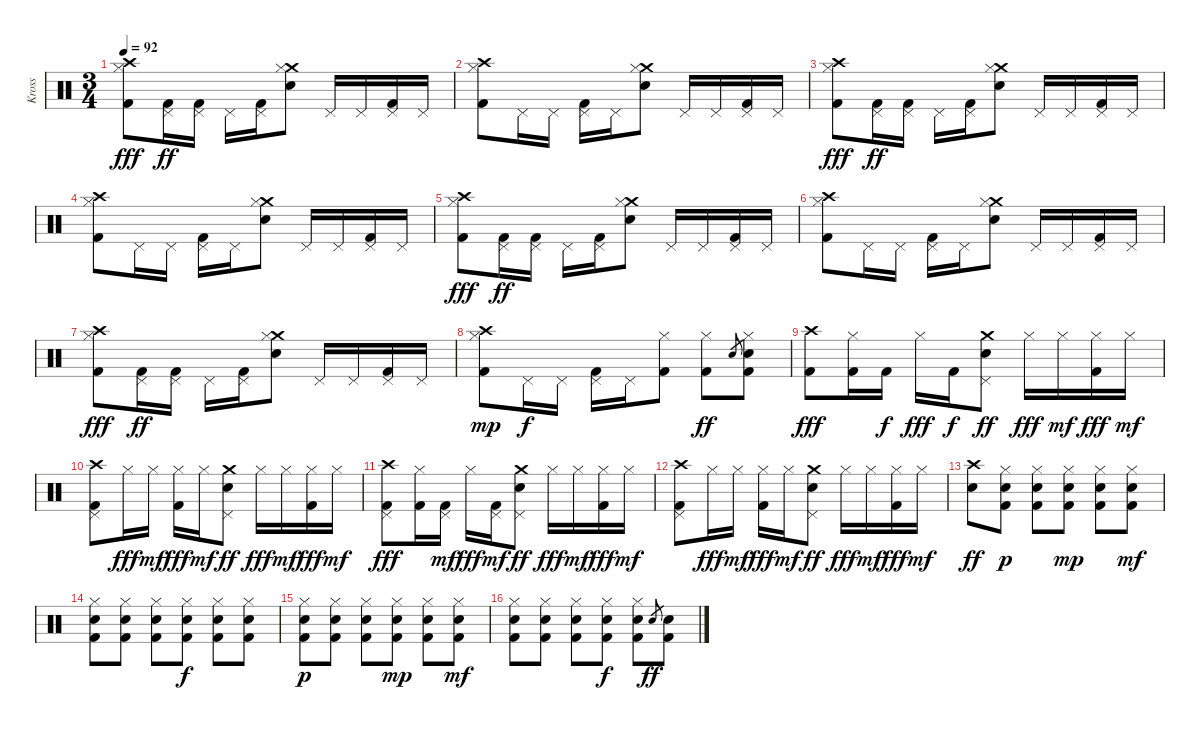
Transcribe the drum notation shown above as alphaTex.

\track ("Kross" "Kross") {instrument percussion}
\staff {score}
\articulation defaults
\ts (3 4)
\tempo 92
\clef neutral
\ks c
("Crash high (hit)" "Hi-Hat (closed)" "Kick (hit) 2").8{dy fff} ("Pedal Hi-Hat (hit)" "Kick (hit) 2").16{dy ff} ("Pedal Hi-Hat (hit)" "Kick (hit) 2").16 "Pedal Hi-Hat (hit)".16 ("Pedal Hi-Hat (hit)" "Kick (hit) 2").16 ("Crash medium (hit)" "Hi-Hat (closed)" "Snare (hit) 2").8 "Pedal Hi-Hat (hit)".16 "Pedal Hi-Hat (hit)".16 ("Pedal Hi-Hat (hit)" "Kick (hit) 2").16 "Pedal Hi-Hat (hit)".16 |
("Crash high (hit)" "Hi-Hat (closed)" "Kick (hit) 2").8 "Pedal Hi-Hat (hit)".16 "Pedal Hi-Hat (hit)".16 ("Pedal Hi-Hat (hit)" "Kick (hit) 2").16 "Pedal Hi-Hat (hit)".16 ("Crash medium (hit)" "Hi-Hat (closed)" "Snare (hit) 2").8 "Pedal Hi-Hat (hit)".16 "Pedal Hi-Hat (hit)".16 ("Pedal Hi-Hat (hit)" "Kick (hit) 2").16 "Pedal Hi-Hat (hit)".16 |
("Crash high (hit)" "Hi-Hat (closed)" "Kick (hit) 2").8{dy fff} ("Pedal Hi-Hat (hit)" "Kick (hit) 2").16{dy ff} ("Pedal Hi-Hat (hit)" "Kick (hit) 2").16 "Pedal Hi-Hat (hit)".16 ("Pedal Hi-Hat (hit)" "Kick (hit) 2").16 ("Crash medium (hit)" "Hi-Hat (closed)" "Snare (hit) 2").8 "Pedal Hi-Hat (hit)".16 "Pedal Hi-Hat (hit)".16 ("Pedal Hi-Hat (hit)" "Kick (hit) 2").16 "Pedal Hi-Hat (hit)".16 |
("Crash high (hit)" "Hi-Hat (closed)" "Kick (hit) 2").8 "Pedal Hi-Hat (hit)".16 "Pedal Hi-Hat (hit)".16 ("Pedal Hi-Hat (hit)" "Kick (hit) 2").16 "Pedal Hi-Hat (hit)".16 ("Crash medium (hit)" "Hi-Hat (closed)" "Snare (hit) 2").8 "Pedal Hi-Hat (hit)".16 "Pedal Hi-Hat (hit)".16 ("Pedal Hi-Hat (hit)" "Kick (hit) 2").16 "Pedal Hi-Hat (hit)".16 |
("Crash high (hit)" "Hi-Hat (closed)" "Kick (hit) 2").8{dy fff} ("Pedal Hi-Hat (hit)" "Kick (hit) 2").16{dy ff} ("Pedal Hi-Hat (hit)" "Kick (hit) 2").16 "Pedal Hi-Hat (hit)".16 ("Pedal Hi-Hat (hit)" "Kick (hit) 2").16 ("Crash medium (hit)" "Hi-Hat (closed)" "Snare (hit) 2").8 "Pedal Hi-Hat (hit)".16 "Pedal Hi-Hat (hit)".16 ("Pedal Hi-Hat (hit)" "Kick (hit) 2").16 "Pedal Hi-Hat (hit)".16 |
("Crash high (hit)" "Hi-Hat (closed)" "Kick (hit) 2").8 "Pedal Hi-Hat (hit)".16 "Pedal Hi-Hat (hit)".16 ("Pedal Hi-Hat (hit)" "Kick (hit) 2").16 "Pedal Hi-Hat (hit)".16 ("Crash medium (hit)" "Hi-Hat (closed)" "Snare (hit) 2").8 "Pedal Hi-Hat (hit)".16 "Pedal Hi-Hat (hit)".16 ("Pedal Hi-Hat (hit)" "Kick (hit) 2").16 "Pedal Hi-Hat (hit)".16 |
("Crash high (hit)" "Hi-Hat (closed)" "Kick (hit) 2").8{dy fff} ("Pedal Hi-Hat (hit)" "Kick (hit) 2").16{dy ff} ("Pedal Hi-Hat (hit)" "Kick (hit) 2").16 "Pedal Hi-Hat (hit)".16 ("Pedal Hi-Hat (hit)" "Kick (hit) 2").16 ("Crash medium (hit)" "Hi-Hat (closed)" "Snare (hit) 2").8 "Pedal Hi-Hat (hit)".16 "Pedal Hi-Hat (hit)".16 ("Pedal Hi-Hat (hit)" "Kick (hit) 2").16 "Pedal Hi-Hat (hit)".16 |
("Crash high (hit)" "Hi-Hat (closed)" "Kick (hit) 2").8{dy mp} "Pedal Hi-Hat (hit)".16{dy f} "Pedal Hi-Hat (hit)".16 ("Pedal Hi-Hat (hit)" "Kick (hit) 2").16 "Pedal Hi-Hat (hit)".16 ("Hi-Hat (closed)" "Kick (hit) 2").8 ("Hi-Hat (closed)" "Kick (hit) 2").8{dy ff} "Electric Snare (hit)".8{gr} ("Hi-Hat (closed)" "Electric Snare (hit)" "Kick (hit) 2").8 |
("Crash high (hit)" "Kick (hit) 2").8{dy fff} ("Hi-Hat (closed)" "Kick (hit) 2").16 "Kick (hit) 2".16{dy f} "Hi-Hat (closed)".16{dy fff} "Kick (hit) 2".16{dy f} ("Crash medium (hit)" "Pedal Hi-Hat (hit)" "Snare (hit) 2").8{dy ff} "Hi-Hat (closed)".16{dy fff} "Hi-Hat (closed)".16{dy mf} ("Hi-Hat (closed)" "Kick (hit) 2").16{dy fff} "Hi-Hat (closed)".16{dy mf} |
("Crash high (hit)" "Pedal Hi-Hat (hit)" "Kick (hit) 2").8 "Hi-Hat (closed)".16{dy fff} "Hi-Hat (closed)".16{dy mf} ("Hi-Hat (closed)" "Kick (hit) 2").16{dy fff} "Hi-Hat (closed)".16{dy mf} ("Crash medium (hit)" "Pedal Hi-Hat (hit)" "Snare (hit) 2").8{dy ff} "Hi-Hat (closed)".16{dy fff} "Hi-Hat (closed)".16{dy mf} ("Hi-Hat (closed)" "Kick (hit) 2").16{dy fff} "Hi-Hat (closed)".16{dy mf} |
("Crash high (hit)" "Pedal Hi-Hat (hit)" "Kick (hit) 2").8{dy fff} ("Hi-Hat (closed)" "Kick (hit) 2").16 ("Pedal Hi-Hat (hit)" "Kick (hit) 2").16{dy mf} "Hi-Hat (closed)".16{dy fff} ("Pedal Hi-Hat (hit)" "Kick (hit) 2").16{dy mf} ("Crash medium (hit)" "Pedal Hi-Hat (hit)" "Snare (hit) 2").8{dy ff} "Hi-Hat (closed)".16{dy fff} "Hi-Hat (closed)".16{dy mf} ("Hi-Hat (closed)" "Kick (hit) 2").16{dy fff} "Hi-Hat (closed)".16{dy mf} |
("Crash high (hit)" "Pedal Hi-Hat (hit)" "Kick (hit) 2").8 "Hi-Hat (closed)".16{dy fff} "Hi-Hat (closed)".16{dy mf} ("Hi-Hat (closed)" "Kick (hit) 2").16{dy fff} "Hi-Hat (closed)".16{dy mf} ("Crash medium (hit)" "Pedal Hi-Hat (hit)" "Snare (hit) 2").8{dy ff} "Hi-Hat (closed)".16{dy fff} "Hi-Hat (closed)".16{dy mf} ("Hi-Hat (closed)" "Kick (hit) 2").16{dy fff} "Hi-Hat (closed)".16{dy mf} |
("Crash high (hit)" "Snare (hit) 2").8{dy ff} ("Hi-Hat (closed)" "Electric Snare (hit)" "Kick (hit) 2").8{dy p} ("Hi-Hat (closed)" "Electric Snare (hit)" "Kick (hit) 2").8 ("Hi-Hat (closed)" "Electric Snare (hit)" "Kick (hit) 2").8{dy mp} ("Hi-Hat (closed)" "Electric Snare (hit)" "Kick (hit) 2").8 ("Hi-Hat (closed)" "Electric Snare (hit)" "Kick (hit) 2").8{dy mf} |
("Hi-Hat (closed)" "Electric Snare (hit)" "Kick (hit) 2").8 ("Hi-Hat (closed)" "Electric Snare (hit)" "Kick (hit) 2").8 ("Hi-Hat (closed)" "Electric Snare (hit)" "Kick (hit) 2").8 ("Hi-Hat (closed)" "Electric Snare (hit)" "Kick (hit) 2").8{dy f} ("Hi-Hat (closed)" "Electric Snare (hit)" "Kick (hit) 2").8 ("Hi-Hat (closed)" "Electric Snare (hit)" "Kick (hit) 2").8 |
("Hi-Hat (closed)" "Electric Snare (hit)" "Kick (hit) 2").8{dy p} ("Hi-Hat (closed)" "Electric Snare (hit)" "Kick (hit) 2").8 ("Hi-Hat (closed)" "Electric Snare (hit)" "Kick (hit) 2").8 ("Hi-Hat (closed)" "Electric Snare (hit)" "Kick (hit) 2").8{dy mp} ("Hi-Hat (closed)" "Electric Snare (hit)" "Kick (hit) 2").8 ("Hi-Hat (closed)" "Electric Snare (hit)" "Kick (hit) 2").8{dy mf} |
("Hi-Hat (closed)" "Electric Snare (hit)" "Kick (hit) 2").8 ("Hi-Hat (closed)" "Electric Snare (hit)" "Kick (hit) 2").8 ("Hi-Hat (closed)" "Electric Snare (hit)" "Kick (hit) 2").8 ("Hi-Hat (closed)" "Electric Snare (hit)" "Kick (hit) 2").8{dy f} ("Hi-Hat (closed)" "Electric Snare (hit)" "Kick (hit) 2").8 "Electric Snare (hit)".8{gr dy ff} ("Electric Snare (hit)" "Kick (hit) 2").8
